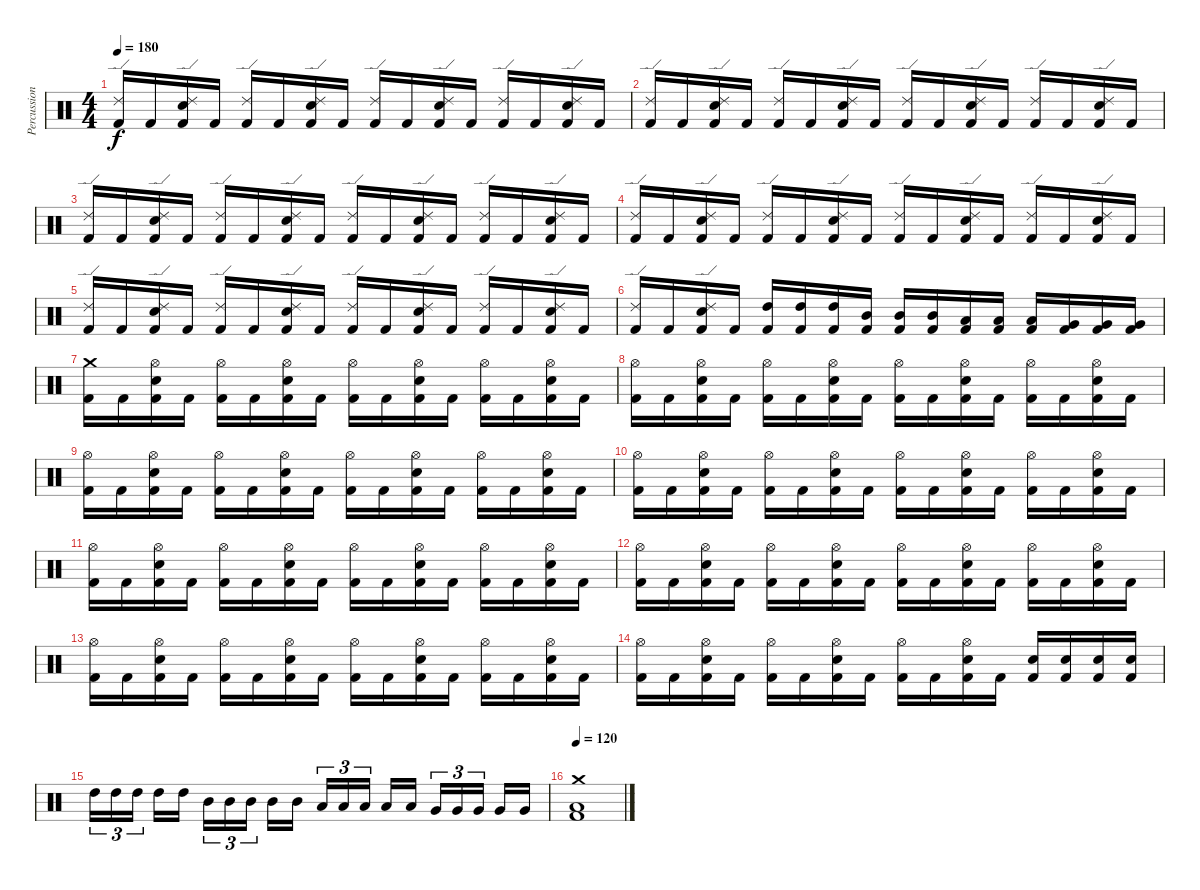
\track ("Percussion" "Percussion") {instrument percussion}
\staff {score}
\articulation defaults
\ts (4 4)
\tempo 180
\clef neutral
\ks c
("Kick (hit) 2" "Ride (edge) 2").16{dy f} "Kick (hit) 2".16 ("Kick (hit) 2" "Electric Snare (hit)" "Ride (edge) 2").16 "Kick (hit) 2".16 ("Kick (hit) 2" "Ride (edge) 2").16 "Kick (hit) 2".16 ("Kick (hit) 2" "Electric Snare (hit)" "Ride (edge) 2").16 "Kick (hit) 2".16 ("Kick (hit) 2" "Ride (edge) 2").16 "Kick (hit) 2".16 ("Kick (hit) 2" "Electric Snare (hit)" "Ride (edge) 2").16 "Kick (hit) 2".16 ("Kick (hit) 2" "Ride (edge) 2").16 "Kick (hit) 2".16 ("Kick (hit) 2" "Electric Snare (hit)" "Ride (edge) 2").16 "Kick (hit) 2".16 |
("Kick (hit) 2" "Ride (edge) 2").16 "Kick (hit) 2".16 ("Kick (hit) 2" "Electric Snare (hit)" "Ride (edge) 2").16 "Kick (hit) 2".16 ("Kick (hit) 2" "Ride (edge) 2").16 "Kick (hit) 2".16 ("Kick (hit) 2" "Electric Snare (hit)" "Ride (edge) 2").16 "Kick (hit) 2".16 ("Kick (hit) 2" "Ride (edge) 2").16 "Kick (hit) 2".16 ("Kick (hit) 2" "Electric Snare (hit)" "Ride (edge) 2").16 "Kick (hit) 2".16 ("Kick (hit) 2" "Ride (edge) 2").16 "Kick (hit) 2".16 ("Kick (hit) 2" "Electric Snare (hit)" "Ride (edge) 2").16 "Kick (hit) 2".16 |
("Kick (hit) 2" "Ride (edge) 2").16 "Kick (hit) 2".16 ("Kick (hit) 2" "Electric Snare (hit)" "Ride (edge) 2").16 "Kick (hit) 2".16 ("Kick (hit) 2" "Ride (edge) 2").16 "Kick (hit) 2".16 ("Kick (hit) 2" "Electric Snare (hit)" "Ride (edge) 2").16 "Kick (hit) 2".16 ("Kick (hit) 2" "Ride (edge) 2").16 "Kick (hit) 2".16 ("Kick (hit) 2" "Electric Snare (hit)" "Ride (edge) 2").16 "Kick (hit) 2".16 ("Kick (hit) 2" "Ride (edge) 2").16 "Kick (hit) 2".16 ("Kick (hit) 2" "Electric Snare (hit)" "Ride (edge) 2").16 "Kick (hit) 2".16 |
("Kick (hit) 2" "Ride (edge) 2").16 "Kick (hit) 2".16 ("Kick (hit) 2" "Electric Snare (hit)" "Ride (edge) 2").16 "Kick (hit) 2".16 ("Kick (hit) 2" "Ride (edge) 2").16 "Kick (hit) 2".16 ("Kick (hit) 2" "Electric Snare (hit)" "Ride (edge) 2").16 "Kick (hit) 2".16 ("Kick (hit) 2" "Ride (edge) 2").16 "Kick (hit) 2".16 ("Kick (hit) 2" "Electric Snare (hit)" "Ride (edge) 2").16 "Kick (hit) 2".16 ("Kick (hit) 2" "Ride (edge) 2").16 "Kick (hit) 2".16 ("Kick (hit) 2" "Electric Snare (hit)" "Ride (edge) 2").16 "Kick (hit) 2".16 |
("Kick (hit) 2" "Ride (edge) 2").16 "Kick (hit) 2".16 ("Kick (hit) 2" "Electric Snare (hit)" "Ride (edge) 2").16 "Kick (hit) 2".16 ("Kick (hit) 2" "Ride (edge) 2").16 "Kick (hit) 2".16 ("Kick (hit) 2" "Electric Snare (hit)" "Ride (edge) 2").16 "Kick (hit) 2".16 ("Kick (hit) 2" "Ride (edge) 2").16 "Kick (hit) 2".16 ("Kick (hit) 2" "Electric Snare (hit)" "Ride (edge) 2").16 "Kick (hit) 2".16 ("Kick (hit) 2" "Ride (edge) 2").16 "Kick (hit) 2".16 ("Kick (hit) 2" "Electric Snare (hit)" "Ride (edge) 2").16 "Kick (hit) 2".16 |
("Kick (hit) 2" "Ride (edge) 2").16 "Kick (hit) 2".16 ("Kick (hit) 2" "Electric Snare (hit)" "Ride (edge) 2").16 "Kick (hit) 2".16 ("Kick (hit) 2" "High Tom (hit)").16 ("Kick (hit) 2" "High Tom (hit)").16 ("Kick (hit) 2" "High Tom (hit)").16 ("Kick (hit) 2" "Mid Tom (hit)").16 ("Kick (hit) 2" "Mid Tom (hit)").16 ("Kick (hit) 2" "Mid Tom (hit)").16 ("Kick (hit) 2" "Low Tom (hit)").16 ("Kick (hit) 2" "Low Tom (hit)").16 ("Kick (hit) 2" "Low Tom (hit)").16 ("Kick (hit) 2" "Very Low Tom (hit)").16 ("Kick (hit) 2" "Very Low Tom (hit)").16 ("Kick (hit) 2" "Very Low Tom (hit)").16 |
("Kick (hit) 2" "Crash medium (hit)").16 "Kick (hit) 2".16 ("Kick (hit) 2" "Electric Snare (hit)" "Hi-Hat (open)").16 "Kick (hit) 2".16 ("Kick (hit) 2" "Hi-Hat (open)").16 "Kick (hit) 2".16 ("Kick (hit) 2" "Electric Snare (hit)" "Hi-Hat (open)").16 "Kick (hit) 2".16 ("Kick (hit) 2" "Hi-Hat (open)").16 "Kick (hit) 2".16 ("Kick (hit) 2" "Electric Snare (hit)" "Hi-Hat (open)").16 "Kick (hit) 2".16 ("Kick (hit) 2" "Hi-Hat (open)").16 "Kick (hit) 2".16 ("Kick (hit) 2" "Electric Snare (hit)" "Hi-Hat (open)").16 "Kick (hit) 2".16 |
("Kick (hit) 2" "Hi-Hat (open)").16 "Kick (hit) 2".16 ("Kick (hit) 2" "Electric Snare (hit)" "Hi-Hat (open)").16 "Kick (hit) 2".16 ("Kick (hit) 2" "Hi-Hat (open)").16 "Kick (hit) 2".16 ("Kick (hit) 2" "Electric Snare (hit)" "Hi-Hat (open)").16 "Kick (hit) 2".16 ("Kick (hit) 2" "Hi-Hat (open)").16 "Kick (hit) 2".16 ("Kick (hit) 2" "Electric Snare (hit)" "Hi-Hat (open)").16 "Kick (hit) 2".16 ("Kick (hit) 2" "Hi-Hat (open)").16 "Kick (hit) 2".16 ("Kick (hit) 2" "Electric Snare (hit)" "Hi-Hat (open)").16 "Kick (hit) 2".16 |
("Kick (hit) 2" "Hi-Hat (open)").16 "Kick (hit) 2".16 ("Kick (hit) 2" "Electric Snare (hit)" "Hi-Hat (open)").16 "Kick (hit) 2".16 ("Kick (hit) 2" "Hi-Hat (open)").16 "Kick (hit) 2".16 ("Kick (hit) 2" "Electric Snare (hit)" "Hi-Hat (open)").16 "Kick (hit) 2".16 ("Kick (hit) 2" "Hi-Hat (open)").16 "Kick (hit) 2".16 ("Kick (hit) 2" "Electric Snare (hit)" "Hi-Hat (open)").16 "Kick (hit) 2".16 ("Kick (hit) 2" "Hi-Hat (open)").16 "Kick (hit) 2".16 ("Kick (hit) 2" "Electric Snare (hit)" "Hi-Hat (open)").16 "Kick (hit) 2".16 |
("Kick (hit) 2" "Hi-Hat (open)").16 "Kick (hit) 2".16 ("Kick (hit) 2" "Electric Snare (hit)" "Hi-Hat (open)").16 "Kick (hit) 2".16 ("Kick (hit) 2" "Hi-Hat (open)").16 "Kick (hit) 2".16 ("Kick (hit) 2" "Electric Snare (hit)" "Hi-Hat (open)").16 "Kick (hit) 2".16 ("Kick (hit) 2" "Hi-Hat (open)").16 "Kick (hit) 2".16 ("Kick (hit) 2" "Electric Snare (hit)" "Hi-Hat (open)").16 "Kick (hit) 2".16 ("Kick (hit) 2" "Hi-Hat (open)").16 "Kick (hit) 2".16 ("Kick (hit) 2" "Electric Snare (hit)" "Hi-Hat (open)").16 "Kick (hit) 2".16 |
("Kick (hit) 2" "Hi-Hat (open)").16 "Kick (hit) 2".16 ("Kick (hit) 2" "Electric Snare (hit)" "Hi-Hat (open)").16 "Kick (hit) 2".16 ("Kick (hit) 2" "Hi-Hat (open)").16 "Kick (hit) 2".16 ("Kick (hit) 2" "Electric Snare (hit)" "Hi-Hat (open)").16 "Kick (hit) 2".16 ("Kick (hit) 2" "Hi-Hat (open)").16 "Kick (hit) 2".16 ("Kick (hit) 2" "Electric Snare (hit)" "Hi-Hat (open)").16 "Kick (hit) 2".16 ("Kick (hit) 2" "Hi-Hat (open)").16 "Kick (hit) 2".16 ("Kick (hit) 2" "Electric Snare (hit)" "Hi-Hat (open)").16 "Kick (hit) 2".16 |
("Kick (hit) 2" "Hi-Hat (open)").16 "Kick (hit) 2".16 ("Kick (hit) 2" "Electric Snare (hit)" "Hi-Hat (open)").16 "Kick (hit) 2".16 ("Kick (hit) 2" "Hi-Hat (open)").16 "Kick (hit) 2".16 ("Kick (hit) 2" "Electric Snare (hit)" "Hi-Hat (open)").16 "Kick (hit) 2".16 ("Kick (hit) 2" "Hi-Hat (open)").16 "Kick (hit) 2".16 ("Kick (hit) 2" "Electric Snare (hit)" "Hi-Hat (open)").16 "Kick (hit) 2".16 ("Kick (hit) 2" "Hi-Hat (open)").16 "Kick (hit) 2".16 ("Kick (hit) 2" "Electric Snare (hit)" "Hi-Hat (open)").16 "Kick (hit) 2".16 |
("Kick (hit) 2" "Hi-Hat (open)").16 "Kick (hit) 2".16 ("Kick (hit) 2" "Electric Snare (hit)" "Hi-Hat (open)").16 "Kick (hit) 2".16 ("Kick (hit) 2" "Hi-Hat (open)").16 "Kick (hit) 2".16 ("Kick (hit) 2" "Electric Snare (hit)" "Hi-Hat (open)").16 "Kick (hit) 2".16 ("Kick (hit) 2" "Hi-Hat (open)").16 "Kick (hit) 2".16 ("Kick (hit) 2" "Electric Snare (hit)" "Hi-Hat (open)").16 "Kick (hit) 2".16 ("Kick (hit) 2" "Hi-Hat (open)").16 "Kick (hit) 2".16 ("Kick (hit) 2" "Electric Snare (hit)" "Hi-Hat (open)").16 "Kick (hit) 2".16 |
("Kick (hit) 2" "Hi-Hat (open)").16 "Kick (hit) 2".16 ("Kick (hit) 2" "Electric Snare (hit)" "Hi-Hat (open)").16 "Kick (hit) 2".16 ("Kick (hit) 2" "Hi-Hat (open)").16 "Kick (hit) 2".16 ("Kick (hit) 2" "Electric Snare (hit)" "Hi-Hat (open)").16 "Kick (hit) 2".16 ("Kick (hit) 2" "Hi-Hat (open)").16 "Kick (hit) 2".16 ("Kick (hit) 2" "Electric Snare (hit)" "Hi-Hat (open)").16 "Kick (hit) 2".16 ("Kick (hit) 2" "Electric Snare (hit)").16 ("Kick (hit) 2" "Electric Snare (hit)").16 ("Kick (hit) 2" "Electric Snare (hit)").16 ("Kick (hit) 2" "Electric Snare (hit)").16 |
"High Tom (hit)".16{tu (3 2)} "High Tom (hit)".16{tu (3 2)} "High Tom (hit)".16{tu (3 2)} "High Tom (hit)".16 "High Tom (hit)".16 "Mid Tom (hit)".16{tu (3 2)} "Mid Tom (hit)".16{tu (3 2)} "Mid Tom (hit)".16{tu (3 2)} "Mid Tom (hit)".16 "Mid Tom (hit)".16 "Low Tom (hit)".16{tu (3 2)} "Low Tom (hit)".16{tu (3 2)} "Low Tom (hit)".16{tu (3 2)} "Low Tom (hit)".16 "Low Tom (hit)".16 "Very Low Tom (hit)".16{tu (3 2)} "Very Low Tom (hit)".16{tu (3 2)} "Very Low Tom (hit)".16{tu (3 2)} "Very Low Tom (hit)".16 "Very Low Tom (hit)".16 |
\tempo 120
("Kick (hit) 2" "Low Floor Tom (hit)" "Crash medium (hit)").1
